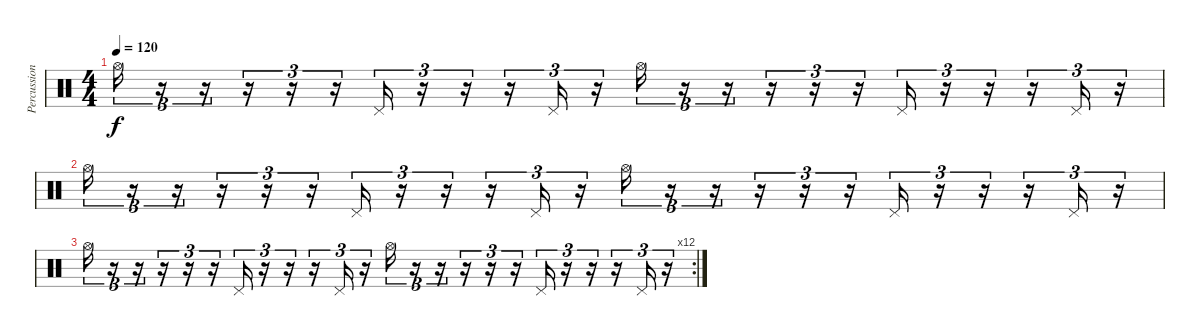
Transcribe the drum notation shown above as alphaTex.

\track ("Percussion" "Percussion") {instrument percussion}
\staff {score}
\articulation defaults
\ts (4 4)
\tempo 120
\clef neutral
\ks c "Hi-Hat (open)".16{tu (3 2) dy f}
r.16{tu (3 2)} r.16{tu (3 2)} r.16{tu (3 2)} r.16{tu (3 2)} r.16{tu (3 2)} "Pedal Hi-Hat (hit)".16{tu (3 2)} r.16{tu (3 2)} r.16{tu (3 2)} r.16{tu (3 2)} "Pedal Hi-Hat (hit)".16{tu (3 2)} r.16{tu (3 2)} "Hi-Hat (open)".16{tu (3 2)} r.16{tu (3 2)} r.16{tu (3 2)} r.16{tu (3 2)} r.16{tu (3 2)} r.16{tu (3 2)} "Pedal Hi-Hat (hit)".16{tu (3 2)} r.16{tu (3 2)} r.16{tu (3 2)} r.16{tu (3 2)} "Pedal Hi-Hat (hit)".16{tu (3 2)} r.16{tu (3 2)} |
"Hi-Hat (open)".16{tu (3 2)} r.16{tu (3 2)} r.16{tu (3 2)} r.16{tu (3 2)} r.16{tu (3 2)} r.16{tu (3 2)} "Pedal Hi-Hat (hit)".16{tu (3 2)} r.16{tu (3 2)} r.16{tu (3 2)} r.16{tu (3 2)} "Pedal Hi-Hat (hit)".16{tu (3 2)} r.16{tu (3 2)} "Hi-Hat (open)".16{tu (3 2)} r.16{tu (3 2)} r.16{tu (3 2)} r.16{tu (3 2)} r.16{tu (3 2)} r.16{tu (3 2)} "Pedal Hi-Hat (hit)".16{tu (3 2)} r.16{tu (3 2)} r.16{tu (3 2)} r.16{tu (3 2)} "Pedal Hi-Hat (hit)".16{tu (3 2)} r.16{tu (3 2)} |
\rc 12 "Hi-Hat (open)".16{tu (3 2)}
r.16{tu (3 2)} r.16{tu (3 2)} r.16{tu (3 2)} r.16{tu (3 2)} r.16{tu (3 2)} "Pedal Hi-Hat (hit)".16{tu (3 2)} r.16{tu (3 2)} r.16{tu (3 2)} r.16{tu (3 2)} "Pedal Hi-Hat (hit)".16{tu (3 2)} r.16{tu (3 2)} "Hi-Hat (open)".16{tu (3 2)} r.16{tu (3 2)} r.16{tu (3 2)} r.16{tu (3 2)} r.16{tu (3 2)} r.16{tu (3 2)} "Pedal Hi-Hat (hit)".16{tu (3 2)} r.16{tu (3 2)} r.16{tu (3 2)} r.16{tu (3 2)} "Pedal Hi-Hat (hit)".16{tu (3 2)} r.16{tu (3 2)}
